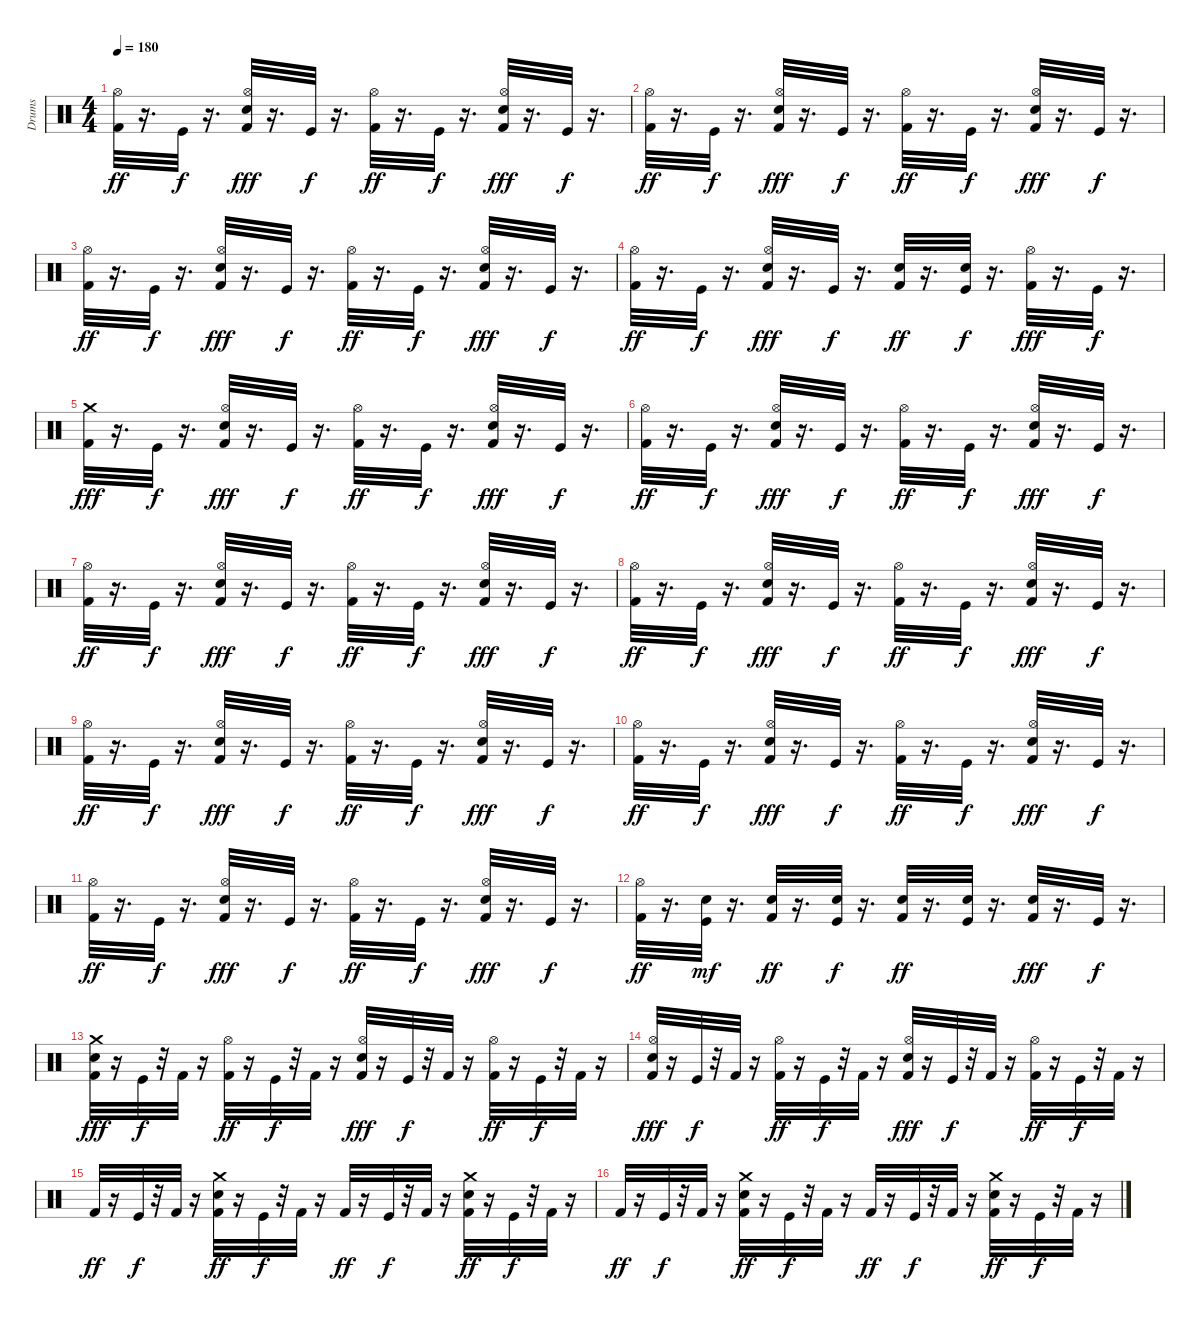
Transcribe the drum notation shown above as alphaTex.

\track ("Drums" "Drums") {instrument percussion}
\staff {score}
\articulation defaults
\ts (4 4)
\tempo 180
\clef neutral
\ks c
("Kick (hit) 2" "Hi-Hat (open)").32{dy ff} r.16{d} "Kick (hit)".32{dy f} r.16{d} ("Kick (hit) 2" "Snare (hit) 2" "Hi-Hat (open)").32{dy fff} r.16{d} "Kick (hit)".32{dy f} r.16{d} ("Kick (hit) 2" "Hi-Hat (open)").32{dy ff} r.16{d} "Kick (hit)".32{dy f} r.16{d} ("Kick (hit) 2" "Snare (hit) 2" "Hi-Hat (open)").32{dy fff} r.16{d} "Kick (hit)".32{dy f} r.16{d} |
("Kick (hit) 2" "Hi-Hat (open)").32{dy ff} r.16{d} "Kick (hit)".32{dy f} r.16{d} ("Kick (hit) 2" "Snare (hit) 2" "Hi-Hat (open)").32{dy fff} r.16{d} "Kick (hit)".32{dy f} r.16{d} ("Kick (hit) 2" "Hi-Hat (open)").32{dy ff} r.16{d} "Kick (hit)".32{dy f} r.16{d} ("Kick (hit) 2" "Snare (hit) 2" "Hi-Hat (open)").32{dy fff} r.16{d} "Kick (hit)".32{dy f} r.16{d} |
("Kick (hit) 2" "Hi-Hat (open)").32{dy ff} r.16{d} "Kick (hit)".32{dy f} r.16{d} ("Kick (hit) 2" "Snare (hit) 2" "Hi-Hat (open)").32{dy fff} r.16{d} "Kick (hit)".32{dy f} r.16{d} ("Kick (hit) 2" "Hi-Hat (open)").32{dy ff} r.16{d} "Kick (hit)".32{dy f} r.16{d} ("Kick (hit) 2" "Snare (hit) 2" "Hi-Hat (open)").32{dy fff} r.16{d} "Kick (hit)".32{dy f} r.16{d} |
("Kick (hit) 2" "Hi-Hat (open)").32{dy ff} r.16{d} "Kick (hit)".32{dy f} r.16{d} ("Kick (hit) 2" "Snare (hit) 2" "Hi-Hat (open)").32{dy fff} r.16{d} "Kick (hit)".32{dy f} r.16{d} ("Snare (hit) 2" "Kick (hit) 2").32{dy ff} r.16{d} ("Snare (hit) 2" "Kick (hit)").32{dy f} r.16{d} ("Kick (hit) 2" "Hi-Hat (open)").32{dy fff} r.16{d} "Kick (hit)".32{dy f} r.16{d} |
("Kick (hit) 2" "Crash medium (hit)").32{dy fff} r.16{d} "Kick (hit)".32{dy f} r.16{d} ("Kick (hit) 2" "Snare (hit) 2" "Hi-Hat (open)").32{dy fff} r.16{d} "Kick (hit)".32{dy f} r.16{d} ("Kick (hit) 2" "Hi-Hat (open)").32{dy ff} r.16{d} "Kick (hit)".32{dy f} r.16{d} ("Kick (hit) 2" "Snare (hit) 2" "Hi-Hat (open)").32{dy fff} r.16{d} "Kick (hit)".32{dy f} r.16{d} |
("Kick (hit) 2" "Hi-Hat (open)").32{dy ff} r.16{d} "Kick (hit)".32{dy f} r.16{d} ("Kick (hit) 2" "Snare (hit) 2" "Hi-Hat (open)").32{dy fff} r.16{d} "Kick (hit)".32{dy f} r.16{d} ("Kick (hit) 2" "Hi-Hat (open)").32{dy ff} r.16{d} "Kick (hit)".32{dy f} r.16{d} ("Kick (hit) 2" "Snare (hit) 2" "Hi-Hat (open)").32{dy fff} r.16{d} "Kick (hit)".32{dy f} r.16{d} |
("Kick (hit) 2" "Hi-Hat (open)").32{dy ff} r.16{d} "Kick (hit)".32{dy f} r.16{d} ("Kick (hit) 2" "Snare (hit) 2" "Hi-Hat (open)").32{dy fff} r.16{d} "Kick (hit)".32{dy f} r.16{d} ("Kick (hit) 2" "Hi-Hat (open)").32{dy ff} r.16{d} "Kick (hit)".32{dy f} r.16{d} ("Kick (hit) 2" "Snare (hit) 2" "Hi-Hat (open)").32{dy fff} r.16{d} "Kick (hit)".32{dy f} r.16{d} |
("Kick (hit) 2" "Hi-Hat (open)").32{dy ff} r.16{d} "Kick (hit)".32{dy f} r.16{d} ("Kick (hit) 2" "Snare (hit) 2" "Hi-Hat (open)").32{dy fff} r.16{d} "Kick (hit)".32{dy f} r.16{d} ("Kick (hit) 2" "Hi-Hat (open)").32{dy ff} r.16{d} "Kick (hit)".32{dy f} r.16{d} ("Kick (hit) 2" "Snare (hit) 2" "Hi-Hat (open)").32{dy fff} r.16{d} "Kick (hit)".32{dy f} r.16{d} |
("Kick (hit) 2" "Hi-Hat (open)").32{dy ff} r.16{d} "Kick (hit)".32{dy f} r.16{d} ("Kick (hit) 2" "Snare (hit) 2" "Hi-Hat (open)").32{dy fff} r.16{d} "Kick (hit)".32{dy f} r.16{d} ("Kick (hit) 2" "Hi-Hat (open)").32{dy ff} r.16{d} "Kick (hit)".32{dy f} r.16{d} ("Kick (hit) 2" "Snare (hit) 2" "Hi-Hat (open)").32{dy fff} r.16{d} "Kick (hit)".32{dy f} r.16{d} |
("Kick (hit) 2" "Hi-Hat (open)").32{dy ff} r.16{d} "Kick (hit)".32{dy f} r.16{d} ("Kick (hit) 2" "Snare (hit) 2" "Hi-Hat (open)").32{dy fff} r.16{d} "Kick (hit)".32{dy f} r.16{d} ("Kick (hit) 2" "Hi-Hat (open)").32{dy ff} r.16{d} "Kick (hit)".32{dy f} r.16{d} ("Kick (hit) 2" "Snare (hit) 2" "Hi-Hat (open)").32{dy fff} r.16{d} "Kick (hit)".32{dy f} r.16{d} |
("Kick (hit) 2" "Hi-Hat (open)").32{dy ff} r.16{d} "Kick (hit)".32{dy f} r.16{d} ("Kick (hit) 2" "Snare (hit) 2" "Hi-Hat (open)").32{dy fff} r.16{d} "Kick (hit)".32{dy f} r.16{d} ("Kick (hit) 2" "Hi-Hat (open)").32{dy ff} r.16{d} "Kick (hit)".32{dy f} r.16{d} ("Kick (hit) 2" "Snare (hit) 2" "Hi-Hat (open)").32{dy fff} r.16{d} "Kick (hit)".32{dy f} r.16{d} |
("Kick (hit) 2" "Hi-Hat (open)").32{dy ff} r.16{d} ("Kick (hit)" "Snare (hit) 2").32{dy mf} r.16{d} ("Kick (hit) 2" "Snare (hit) 2").32{dy ff} r.16{d} ("Kick (hit)" "Snare (hit) 2").32{dy f} r.16{d} ("Kick (hit) 2" "Snare (hit) 2").32{dy ff} r.16{d} ("Kick (hit)" "Snare (hit) 2").32 r.16{d} ("Kick (hit) 2" "Snare (hit) 2").32{dy fff} r.16{d} "Kick (hit)".32{dy f} r.16{d} |
("Kick (hit) 2" "Snare (hit) 2" "Crash medium (hit)").32{dy fff} r.16 "Kick (hit)".32{dy f} r.32 "Kick (hit) 2".32 r.16 ("Kick (hit) 2" "Hi-Hat (open)").32{dy ff} r.16 "Kick (hit)".32{dy f} r.32 "Kick (hit) 2".32 r.16 ("Kick (hit) 2" "Snare (hit) 2" "Hi-Hat (open)").32{dy fff} r.16 "Kick (hit)".32{dy f} r.32 "Kick (hit) 2".32 r.16 ("Kick (hit) 2" "Hi-Hat (open)").32{dy ff} r.16 "Kick (hit)".32{dy f} r.32 "Kick (hit) 2".32 r.16 |
("Kick (hit) 2" "Snare (hit) 2" "Hi-Hat (open)").32{dy fff} r.16 "Kick (hit)".32{dy f} r.32 "Kick (hit) 2".32 r.16 ("Kick (hit) 2" "Hi-Hat (open)").32{dy ff} r.16 "Kick (hit)".32{dy f} r.32 "Kick (hit) 2".32 r.16 ("Kick (hit) 2" "Snare (hit) 2" "Hi-Hat (open)").32{dy fff} r.16 "Kick (hit)".32{dy f} r.32 "Kick (hit) 2".32 r.16 ("Kick (hit) 2" "Hi-Hat (open)").32{dy ff} r.16 "Kick (hit)".32{dy f} r.32 "Kick (hit) 2".32 r.16 |
"Kick (hit) 2".32{dy ff} r.16 "Kick (hit)".32{dy f} r.32 "Kick (hit) 2".32 r.16 ("Crash medium (hit)" "Snare (hit) 2" "Kick (hit) 2").32{dy ff} r.16 "Kick (hit)".32{dy f} r.32 "Kick (hit) 2".32 r.16 "Kick (hit) 2".32{dy ff} r.16 "Kick (hit)".32{dy f} r.32 "Kick (hit) 2".32 r.16 ("Crash medium (hit)" "Snare (hit) 2" "Kick (hit) 2").32{dy ff} r.16 "Kick (hit)".32{dy f} r.32 "Kick (hit) 2".32 r.16 |
"Kick (hit) 2".32{dy ff} r.16 "Kick (hit)".32{dy f} r.32 "Kick (hit) 2".32 r.16 ("Crash medium (hit)" "Snare (hit) 2" "Kick (hit) 2").32{dy ff} r.16 "Kick (hit)".32{dy f} r.32 "Kick (hit) 2".32 r.16 "Kick (hit) 2".32{dy ff} r.16 "Kick (hit)".32{dy f} r.32 "Kick (hit) 2".32 r.16 ("Crash medium (hit)" "Snare (hit) 2" "Kick (hit) 2").32{dy ff} r.16 "Kick (hit)".32{dy f} r.32 "Kick (hit) 2".32 r.16
